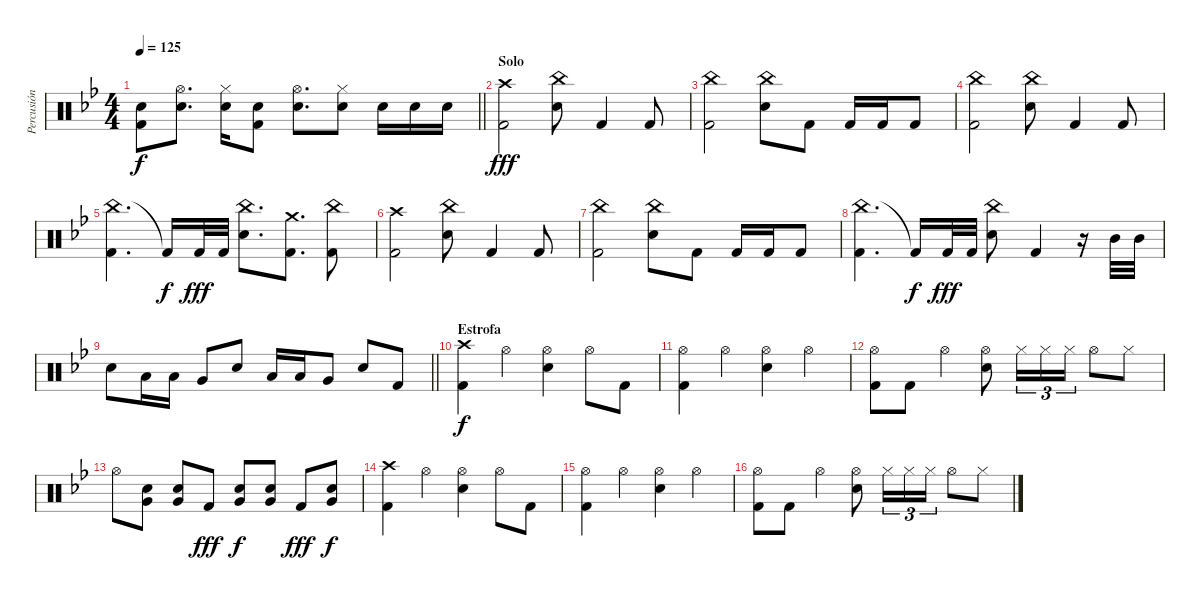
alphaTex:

\track ("Percusión" "Percusión") {instrument percussion}
\staff {score}
\articulation defaults
\ts (4 4)
\tempo 125
\clef neutral
\barLineRight lightlight
\ks gminor
("Snare (hit) 2" "Kick (hit) 2").8{dy f} ("Hi-Hat (open)" "Snare (hit) 2").8{d} ("Hi-Hat (closed)" "Snare (hit) 2").16 ("Snare (hit) 2" "Kick (hit) 2").8 ("Hi-Hat (open)" "Snare (hit) 2").8{d} ("Hi-Hat (closed)" "Snare (hit) 2").8 "Snare (hit) 2".16 "Snare (hit) 2".16 "Snare (hit) 2".16 |
\section ("" "Solo")
("Crash high (hit)" "Kick (hit) 2").2{dy fff} ("China (hit)" "Snare (hit) 2").8 "Kick (hit) 2".4 "Kick (hit) 2".8 |
("China (hit)" "Kick (hit) 2").2 ("China (hit)" "Snare (hit) 2").8 "Kick (hit) 2".8 "Kick (hit) 2".16 "Kick (hit) 2".16 "Kick (hit) 2".8 |
("China (hit)" "Kick (hit) 2").2 ("China (hit)" "Snare (hit) 2").8 "Kick (hit) 2".4 "Kick (hit) 2".8 |
("China (hit)" "Kick (hit) 2").4{d} "Kick (hit) 2"{t}.16{dy f} "Kick (hit) 2".32{dy fff} "Kick (hit) 2".32 ("China (hit)" "Snare (hit) 2").8{d} ("Crash medium (hit)" "Kick (hit) 2").8{d} ("China (hit)" "Kick (hit) 2").8 |
("Crash high (hit)" "Kick (hit) 2").2 ("China (hit)" "Snare (hit) 2").8 "Kick (hit) 2".4 "Kick (hit) 2".8 |
("China (hit)" "Kick (hit) 2").2 ("China (hit)" "Snare (hit) 2").8 "Kick (hit) 2".8 "Kick (hit) 2".16 "Kick (hit) 2".16 "Kick (hit) 2".8 |
("China (hit)" "Kick (hit) 2").4{d} "Kick (hit) 2"{t}.16{dy f} "Kick (hit) 2".32{dy fff} "Kick (hit) 2".32 ("China (hit)" "Snare (hit) 2").8 "Kick (hit) 2".4 r.16 "Mid Tom (hit)".32 "Mid Tom (hit)".32 |
\barLineRight lightlight "Snare (hit) 2".8 "Low Tom (hit)".16 "Low Tom (hit)".16 "Very Low Tom (hit)".8 "Snare (hit) 2".8 "Low Tom (hit)".16 "Low Tom (hit)".16 "Very Low Tom (hit)".8 "Snare (hit) 2".8 "Kick (hit) 2".8
|
\section ("" "Estrofa")
("Crash high (hit)" "Kick (hit) 2").4{dy f} "Hi-Hat (open)".4 ("Hi-Hat (open)" "Snare (hit) 2").4 "Hi-Hat (open)".8 "Kick (hit) 2".8 |
("Hi-Hat (open)" "Kick (hit) 2").4 "Hi-Hat (open)".4 ("Hi-Hat (open)" "Snare (hit) 2").4 "Hi-Hat (open)".4 |
("Hi-Hat (open)" "Kick (hit) 2").8 "Kick (hit) 2".8 "Hi-Hat (open)".4 ("Hi-Hat (open)" "Snare (hit) 2").8 "Hi-Hat (closed)".16{tu (3 2)} "Hi-Hat (closed)".16{tu (3 2)} "Hi-Hat (closed)".16{tu (3 2)} "Hi-Hat (open)".8 "Hi-Hat (closed)".8 |
"Hi-Hat (open)".8 ("Snare (hit) 2" "Very Low Tom (hit)").8 ("Snare (hit) 2" "Very Low Tom (hit)").8 "Kick (hit) 2".8{dy fff} ("Snare (hit) 2" "Very Low Tom (hit)").8{dy f} ("Snare (hit) 2" "Very Low Tom (hit)").8 "Kick (hit) 2".8{dy fff} ("Snare (hit) 2" "Very Low Tom (hit)").8{dy f} |
("Crash high (hit)" "Kick (hit) 2").4 "Hi-Hat (open)".4 ("Hi-Hat (open)" "Snare (hit) 2").4 "Hi-Hat (open)".8 "Kick (hit) 2".8 |
("Hi-Hat (open)" "Kick (hit) 2").4 "Hi-Hat (open)".4 ("Hi-Hat (open)" "Snare (hit) 2").4 "Hi-Hat (open)".4 |
("Hi-Hat (open)" "Kick (hit) 2").8 "Kick (hit) 2".8 "Hi-Hat (open)".4 ("Hi-Hat (open)" "Snare (hit) 2").8 "Hi-Hat (closed)".16{tu (3 2)} "Hi-Hat (closed)".16{tu (3 2)} "Hi-Hat (closed)".16{tu (3 2)} "Hi-Hat (open)".8 "Hi-Hat (closed)".8
